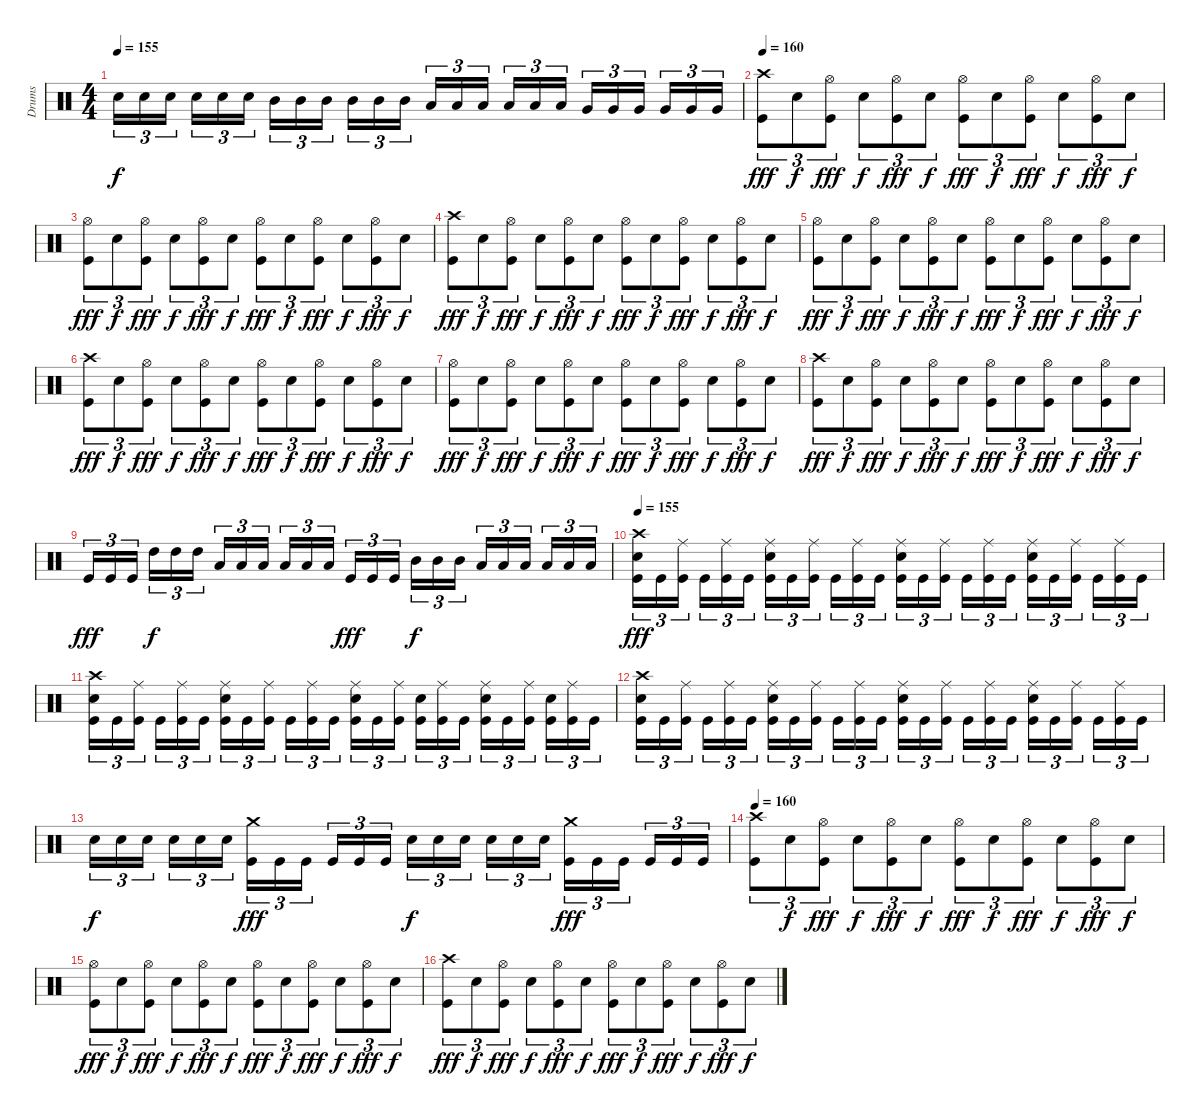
\track ("Drums" "Drums") {instrument percussion}
\staff {score}
\articulation defaults
\ts (4 4)
\tempo 155
\clef neutral
\ks c "Electric Snare (hit)".16{tu (3 2) dy f} "Electric Snare (hit)".16{tu (3 2)} "Electric Snare (hit)".16{tu (3 2)} "Electric Snare (hit)".16{tu (3 2)} "Electric Snare (hit)".16{tu (3 2)} "Electric Snare (hit)".16{tu (3 2)} "Mid Tom (hit)".16{tu (3 2)} "Mid Tom (hit)".16{tu (3 2)} "Mid Tom (hit)".16{tu (3 2)} "Mid Tom (hit)".16{tu (3 2)} "Mid Tom (hit)".16{tu (3 2)} "Mid Tom (hit)".16{tu (3 2)} "Low Tom (hit)".16{tu (3 2)} "Low Tom (hit)".16{tu (3 2)} "Low Tom (hit)".16{tu (3 2)} "Low Tom (hit)".16{tu (3 2)} "Low Tom (hit)".16{tu (3 2)} "Low Tom (hit)".16{tu (3 2)} "Very Low Tom (hit)".16{tu (3 2)} "Very Low Tom (hit)".16{tu (3 2)} "Very Low Tom (hit)".16{tu (3 2)} "Very Low Tom (hit)".16{tu (3 2)} "Very Low Tom (hit)".16{tu (3 2)} "Very Low Tom (hit)".16{tu (3 2)}
|
\tempo 160
("Crash high (hit)" "Kick (hit)").8{tu (3 2) dy fff} "Electric Snare (hit)".8{tu (3 2) dy f} ("Hi-Hat (open)" "Kick (hit)").8{tu (3 2) dy fff} "Electric Snare (hit)".8{tu (3 2) dy f} ("Hi-Hat (open)" "Kick (hit)").8{tu (3 2) dy fff} "Electric Snare (hit)".8{tu (3 2) dy f} ("Hi-Hat (open)" "Kick (hit)").8{tu (3 2) dy fff} "Electric Snare (hit)".8{tu (3 2) dy f} ("Hi-Hat (open)" "Kick (hit)").8{tu (3 2) dy fff} "Electric Snare (hit)".8{tu (3 2) dy f} ("Hi-Hat (open)" "Kick (hit)").8{tu (3 2) dy fff} "Electric Snare (hit)".8{tu (3 2) dy f} |
("Hi-Hat (open)" "Kick (hit)").8{tu (3 2) dy fff} "Electric Snare (hit)".8{tu (3 2) dy f} ("Hi-Hat (open)" "Kick (hit)").8{tu (3 2) dy fff} "Electric Snare (hit)".8{tu (3 2) dy f} ("Hi-Hat (open)" "Kick (hit)").8{tu (3 2) dy fff} "Electric Snare (hit)".8{tu (3 2) dy f} ("Hi-Hat (open)" "Kick (hit)").8{tu (3 2) dy fff} "Electric Snare (hit)".8{tu (3 2) dy f} ("Hi-Hat (open)" "Kick (hit)").8{tu (3 2) dy fff} "Electric Snare (hit)".8{tu (3 2) dy f} ("Hi-Hat (open)" "Kick (hit)").8{tu (3 2) dy fff} "Electric Snare (hit)".8{tu (3 2) dy f} |
("Crash high (hit)" "Kick (hit)").8{tu (3 2) dy fff} "Electric Snare (hit)".8{tu (3 2) dy f} ("Hi-Hat (open)" "Kick (hit)").8{tu (3 2) dy fff} "Electric Snare (hit)".8{tu (3 2) dy f} ("Hi-Hat (open)" "Kick (hit)").8{tu (3 2) dy fff} "Electric Snare (hit)".8{tu (3 2) dy f} ("Hi-Hat (open)" "Kick (hit)").8{tu (3 2) dy fff} "Electric Snare (hit)".8{tu (3 2) dy f} ("Hi-Hat (open)" "Kick (hit)").8{tu (3 2) dy fff} "Electric Snare (hit)".8{tu (3 2) dy f} ("Hi-Hat (open)" "Kick (hit)").8{tu (3 2) dy fff} "Electric Snare (hit)".8{tu (3 2) dy f} |
("Hi-Hat (open)" "Kick (hit)").8{tu (3 2) dy fff} "Electric Snare (hit)".8{tu (3 2) dy f} ("Hi-Hat (open)" "Kick (hit)").8{tu (3 2) dy fff} "Electric Snare (hit)".8{tu (3 2) dy f} ("Hi-Hat (open)" "Kick (hit)").8{tu (3 2) dy fff} "Electric Snare (hit)".8{tu (3 2) dy f} ("Hi-Hat (open)" "Kick (hit)").8{tu (3 2) dy fff} "Electric Snare (hit)".8{tu (3 2) dy f} ("Hi-Hat (open)" "Kick (hit)").8{tu (3 2) dy fff} "Electric Snare (hit)".8{tu (3 2) dy f} ("Hi-Hat (open)" "Kick (hit)").8{tu (3 2) dy fff} "Electric Snare (hit)".8{tu (3 2) dy f} |
("Crash high (hit)" "Kick (hit)").8{tu (3 2) dy fff} "Electric Snare (hit)".8{tu (3 2) dy f} ("Hi-Hat (open)" "Kick (hit)").8{tu (3 2) dy fff} "Electric Snare (hit)".8{tu (3 2) dy f} ("Hi-Hat (open)" "Kick (hit)").8{tu (3 2) dy fff} "Electric Snare (hit)".8{tu (3 2) dy f} ("Hi-Hat (open)" "Kick (hit)").8{tu (3 2) dy fff} "Electric Snare (hit)".8{tu (3 2) dy f} ("Hi-Hat (open)" "Kick (hit)").8{tu (3 2) dy fff} "Electric Snare (hit)".8{tu (3 2) dy f} ("Hi-Hat (open)" "Kick (hit)").8{tu (3 2) dy fff} "Electric Snare (hit)".8{tu (3 2) dy f} |
("Hi-Hat (open)" "Kick (hit)").8{tu (3 2) dy fff} "Electric Snare (hit)".8{tu (3 2) dy f} ("Hi-Hat (open)" "Kick (hit)").8{tu (3 2) dy fff} "Electric Snare (hit)".8{tu (3 2) dy f} ("Hi-Hat (open)" "Kick (hit)").8{tu (3 2) dy fff} "Electric Snare (hit)".8{tu (3 2) dy f} ("Hi-Hat (open)" "Kick (hit)").8{tu (3 2) dy fff} "Electric Snare (hit)".8{tu (3 2) dy f} ("Hi-Hat (open)" "Kick (hit)").8{tu (3 2) dy fff} "Electric Snare (hit)".8{tu (3 2) dy f} ("Hi-Hat (open)" "Kick (hit)").8{tu (3 2) dy fff} "Electric Snare (hit)".8{tu (3 2) dy f} |
("Crash high (hit)" "Kick (hit)").8{tu (3 2) dy fff} "Electric Snare (hit)".8{tu (3 2) dy f} ("Hi-Hat (open)" "Kick (hit)").8{tu (3 2) dy fff} "Electric Snare (hit)".8{tu (3 2) dy f} ("Hi-Hat (open)" "Kick (hit)").8{tu (3 2) dy fff} "Electric Snare (hit)".8{tu (3 2) dy f} ("Hi-Hat (open)" "Kick (hit)").8{tu (3 2) dy fff} "Electric Snare (hit)".8{tu (3 2) dy f} ("Hi-Hat (open)" "Kick (hit)").8{tu (3 2) dy fff} "Electric Snare (hit)".8{tu (3 2) dy f} ("Hi-Hat (open)" "Kick (hit)").8{tu (3 2) dy fff} "Electric Snare (hit)".8{tu (3 2) dy f} |
"Kick (hit)".16{tu (3 2) dy fff} "Kick (hit)".16{tu (3 2)} "Kick (hit)".16{tu (3 2)} "High Tom (hit)".16{tu (3 2) dy f} "High Tom (hit)".16{tu (3 2)} "High Tom (hit)".16{tu (3 2)} "Low Tom (hit)".16{tu (3 2)} "Low Tom (hit)".16{tu (3 2)} "Low Tom (hit)".16{tu (3 2)} "Low Tom (hit)".16{tu (3 2)} "Low Tom (hit)".16{tu (3 2)} "Low Tom (hit)".16{tu (3 2)} "Kick (hit)".16{tu (3 2) dy fff} "Kick (hit)".16{tu (3 2)} "Kick (hit)".16{tu (3 2)} "Mid Tom (hit)".16{tu (3 2) dy f} "Mid Tom (hit)".16{tu (3 2)} "Mid Tom (hit)".16{tu (3 2)} "Low Tom (hit)".16{tu (3 2)} "Low Tom (hit)".16{tu (3 2)} "Low Tom (hit)".16{tu (3 2)} "Low Tom (hit)".16{tu (3 2)} "Low Tom (hit)".16{tu (3 2)} "Low Tom (hit)".16{tu (3 2)} |
\tempo 155
("Crash high (hit)" "Electric Snare (hit)" "Kick (hit)").16{tu (3 2) dy fff} "Kick (hit)".16{tu (3 2)} ("Ride (middle)" "Kick (hit)").16{tu (3 2)} "Kick (hit)".16{tu (3 2)} ("Ride (middle)" "Kick (hit)").16{tu (3 2)} "Kick (hit)".16{tu (3 2)} ("Ride (middle)" "Electric Snare (hit)" "Kick (hit)").16{tu (3 2)} "Kick (hit)".16{tu (3 2)} ("Ride (middle)" "Kick (hit)").16{tu (3 2)} "Kick (hit)".16{tu (3 2)} ("Ride (middle)" "Kick (hit)").16{tu (3 2)} "Kick (hit)".16{tu (3 2)} ("Ride (middle)" "Electric Snare (hit)" "Kick (hit)").16{tu (3 2)} "Kick (hit)".16{tu (3 2)} ("Ride (middle)" "Kick (hit)").16{tu (3 2)} "Kick (hit)".16{tu (3 2)} ("Ride (middle)" "Kick (hit)").16{tu (3 2)} "Kick (hit)".16{tu (3 2)} ("Ride (middle)" "Electric Snare (hit)" "Kick (hit)").16{tu (3 2)} "Kick (hit)".16{tu (3 2)} ("Ride (middle)" "Kick (hit)").16{tu (3 2)} "Kick (hit)".16{tu (3 2)} ("Ride (middle)" "Kick (hit)").16{tu (3 2)} "Kick (hit)".16{tu (3 2)} |
("Crash high (hit)" "Electric Snare (hit)" "Kick (hit)").16{tu (3 2)} "Kick (hit)".16{tu (3 2)} ("Ride (middle)" "Kick (hit)").16{tu (3 2)} "Kick (hit)".16{tu (3 2)} ("Ride (middle)" "Kick (hit)").16{tu (3 2)} "Kick (hit)".16{tu (3 2)} ("Ride (middle)" "Electric Snare (hit)" "Kick (hit)").16{tu (3 2)} "Kick (hit)".16{tu (3 2)} ("Ride (middle)" "Kick (hit)").16{tu (3 2)} "Kick (hit)".16{tu (3 2)} ("Ride (middle)" "Kick (hit)").16{tu (3 2)} "Kick (hit)".16{tu (3 2)} ("Ride (middle)" "Electric Snare (hit)" "Kick (hit)").16{tu (3 2)} "Kick (hit)".16{tu (3 2)} ("Ride (middle)" "Kick (hit)").16{tu (3 2)} ("Electric Snare (hit)" "Kick (hit)").16{tu (3 2)} ("Ride (middle)" "Kick (hit)").16{tu (3 2)} "Kick (hit)".16{tu (3 2)} ("Ride (middle)" "Electric Snare (hit)" "Kick (hit)").16{tu (3 2)} "Kick (hit)".16{tu (3 2)} ("Ride (middle)" "Kick (hit)").16{tu (3 2)} ("Electric Snare (hit)" "Kick (hit)").16{tu (3 2)} ("Ride (middle)" "Kick (hit)").16{tu (3 2)} "Kick (hit)".16{tu (3 2)} |
("Crash high (hit)" "Electric Snare (hit)" "Kick (hit)").16{tu (3 2)} "Kick (hit)".16{tu (3 2)} ("Ride (middle)" "Kick (hit)").16{tu (3 2)} "Kick (hit)".16{tu (3 2)} ("Ride (middle)" "Kick (hit)").16{tu (3 2)} "Kick (hit)".16{tu (3 2)} ("Ride (middle)" "Electric Snare (hit)" "Kick (hit)").16{tu (3 2)} "Kick (hit)".16{tu (3 2)} ("Ride (middle)" "Kick (hit)").16{tu (3 2)} "Kick (hit)".16{tu (3 2)} ("Ride (middle)" "Kick (hit)").16{tu (3 2)} "Kick (hit)".16{tu (3 2)} ("Ride (middle)" "Electric Snare (hit)" "Kick (hit)").16{tu (3 2)} "Kick (hit)".16{tu (3 2)} ("Ride (middle)" "Kick (hit)").16{tu (3 2)} "Kick (hit)".16{tu (3 2)} ("Ride (middle)" "Kick (hit)").16{tu (3 2)} "Kick (hit)".16{tu (3 2)} ("Ride (middle)" "Electric Snare (hit)" "Kick (hit)").16{tu (3 2)} "Kick (hit)".16{tu (3 2)} ("Ride (middle)" "Kick (hit)").16{tu (3 2)} "Kick (hit)".16{tu (3 2)} ("Ride (middle)" "Kick (hit)").16{tu (3 2)} "Kick (hit)".16{tu (3 2)} |
"Electric Snare (hit)".16{tu (3 2) dy f} "Electric Snare (hit)".16{tu (3 2)} "Electric Snare (hit)".16{tu (3 2)} "Electric Snare (hit)".16{tu (3 2)} "Electric Snare (hit)".16{tu (3 2)} "Electric Snare (hit)".16{tu (3 2)} ("Crash medium (hit)" "Kick (hit)").16{tu (3 2) dy fff} "Kick (hit)".16{tu (3 2)} "Kick (hit)".16{tu (3 2)} "Kick (hit)".16{tu (3 2)} "Kick (hit)".16{tu (3 2)} "Kick (hit)".16{tu (3 2)} "Electric Snare (hit)".16{tu (3 2) dy f} "Electric Snare (hit)".16{tu (3 2)} "Electric Snare (hit)".16{tu (3 2)} "Electric Snare (hit)".16{tu (3 2)} "Electric Snare (hit)".16{tu (3 2)} "Electric Snare (hit)".16{tu (3 2)} ("Crash medium (hit)" "Kick (hit)").16{tu (3 2) dy fff} "Kick (hit)".16{tu (3 2)} "Kick (hit)".16{tu (3 2)} "Kick (hit)".16{tu (3 2)} "Kick (hit)".16{tu (3 2)} "Kick (hit)".16{tu (3 2)} |
\tempo 160
("Crash high (hit)" "Kick (hit)").8{tu (3 2)} "Electric Snare (hit)".8{tu (3 2) dy f} ("Hi-Hat (open)" "Kick (hit)").8{tu (3 2) dy fff} "Electric Snare (hit)".8{tu (3 2) dy f} ("Hi-Hat (open)" "Kick (hit)").8{tu (3 2) dy fff} "Electric Snare (hit)".8{tu (3 2) dy f} ("Hi-Hat (open)" "Kick (hit)").8{tu (3 2) dy fff} "Electric Snare (hit)".8{tu (3 2) dy f} ("Hi-Hat (open)" "Kick (hit)").8{tu (3 2) dy fff} "Electric Snare (hit)".8{tu (3 2) dy f} ("Hi-Hat (open)" "Kick (hit)").8{tu (3 2) dy fff} "Electric Snare (hit)".8{tu (3 2) dy f} |
("Hi-Hat (open)" "Kick (hit)").8{tu (3 2) dy fff} "Electric Snare (hit)".8{tu (3 2) dy f} ("Hi-Hat (open)" "Kick (hit)").8{tu (3 2) dy fff} "Electric Snare (hit)".8{tu (3 2) dy f} ("Hi-Hat (open)" "Kick (hit)").8{tu (3 2) dy fff} "Electric Snare (hit)".8{tu (3 2) dy f} ("Hi-Hat (open)" "Kick (hit)").8{tu (3 2) dy fff} "Electric Snare (hit)".8{tu (3 2) dy f} ("Hi-Hat (open)" "Kick (hit)").8{tu (3 2) dy fff} "Electric Snare (hit)".8{tu (3 2) dy f} ("Hi-Hat (open)" "Kick (hit)").8{tu (3 2) dy fff} "Electric Snare (hit)".8{tu (3 2) dy f} |
("Crash high (hit)" "Kick (hit)").8{tu (3 2) dy fff} "Electric Snare (hit)".8{tu (3 2) dy f} ("Hi-Hat (open)" "Kick (hit)").8{tu (3 2) dy fff} "Electric Snare (hit)".8{tu (3 2) dy f} ("Hi-Hat (open)" "Kick (hit)").8{tu (3 2) dy fff} "Electric Snare (hit)".8{tu (3 2) dy f} ("Hi-Hat (open)" "Kick (hit)").8{tu (3 2) dy fff} "Electric Snare (hit)".8{tu (3 2) dy f} ("Hi-Hat (open)" "Kick (hit)").8{tu (3 2) dy fff} "Electric Snare (hit)".8{tu (3 2) dy f} ("Hi-Hat (open)" "Kick (hit)").8{tu (3 2) dy fff} "Electric Snare (hit)".8{tu (3 2) dy f}
